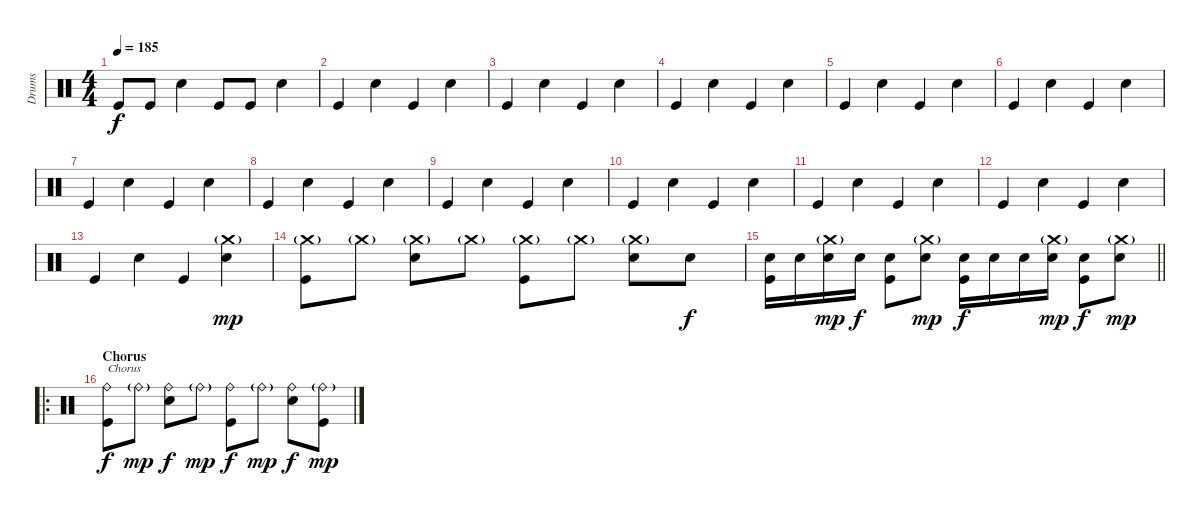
\track ("Drums" "Drums") {instrument percussion}
\staff {score}
\articulation defaults
\ts (4 4)
\tempo 185
\clef neutral
\ks c "Kick (hit)".8{dy f} "Kick (hit)".8 "Snare (hit) 2".4 "Kick (hit)".8 "Kick (hit)".8 "Snare (hit) 2".4
|
"Kick (hit)".4 "Snare (hit) 2".4 "Kick (hit)".4 "Snare (hit) 2".4 |
"Kick (hit)".4 "Snare (hit) 2".4 "Kick (hit)".4 "Snare (hit) 2".4 |
"Kick (hit)".4 "Snare (hit) 2".4 "Kick (hit)".4 "Snare (hit) 2".4 |
"Kick (hit)".4 "Snare (hit) 2".4 "Kick (hit)".4 "Snare (hit) 2".4 |
"Kick (hit)".4 "Snare (hit) 2".4 "Kick (hit)".4 "Snare (hit) 2".4 |
"Kick (hit)".4 "Snare (hit) 2".4 "Kick (hit)".4 "Snare (hit) 2".4 |
"Kick (hit)".4 "Snare (hit) 2".4 "Kick (hit)".4 "Snare (hit) 2".4 |
"Kick (hit)".4 "Snare (hit) 2".4 "Kick (hit)".4 "Snare (hit) 2".4 |
"Kick (hit)".4 "Snare (hit) 2".4 "Kick (hit)".4 "Snare (hit) 2".4 |
"Kick (hit)".4 "Snare (hit) 2".4 "Kick (hit)".4 "Snare (hit) 2".4 |
"Kick (hit)".4 "Snare (hit) 2".4 "Kick (hit)".4 "Snare (hit) 2".4 |
"Kick (hit)".4 "Snare (hit) 2".4 "Kick (hit)".4 ("Crash medium (hit)"{g} "Snare (hit) 2").4{dy mp} |
("Crash medium (hit)"{g} "Kick (hit)").8 "Crash medium (hit)"{g}.8 ("Crash medium (hit)"{g} "Snare (hit) 2").8 "Crash medium (hit)"{g}.8 ("Crash medium (hit)"{g} "Kick (hit)").8 "Crash medium (hit)"{g}.8 ("Crash medium (hit)"{g} "Snare (hit) 2").8 "Snare (hit) 2".8{dy f} |
\barLineRight lightlight
("Snare (hit) 2" "Kick (hit)").16 "Snare (hit) 2".16 ("Crash medium (hit)"{g} "Snare (hit) 2").16{dy mp} "Snare (hit) 2".16{dy f} ("Snare (hit) 2" "Kick (hit)").8 ("Crash medium (hit)"{g} "Snare (hit) 2").8{dy mp} ("Snare (hit) 2" "Kick (hit)").16{dy f} "Snare (hit) 2".16 "Snare (hit) 2".16 ("Crash medium (hit)"{g} "Snare (hit) 2").16{dy mp} ("Snare (hit) 2" "Kick (hit)").8{dy f} ("Crash medium (hit)"{g} "Snare (hit) 2").8{dy mp} |
\ro
\section ("" "Chorus")
("Ride (bell)" "Kick (hit)").8{txt "Chorus" dy f} "Ride (bell)"{g}.8{dy mp} ("Ride (bell)" "Snare (hit) 2").8{dy f} "Ride (bell)"{g}.8{dy mp} ("Ride (bell)" "Kick (hit)").8{dy f} "Ride (bell)"{g}.8{dy mp} ("Ride (bell)" "Snare (hit) 2").8{dy f} ("Ride (bell)"{g} "Kick (hit)").8{dy mp}
